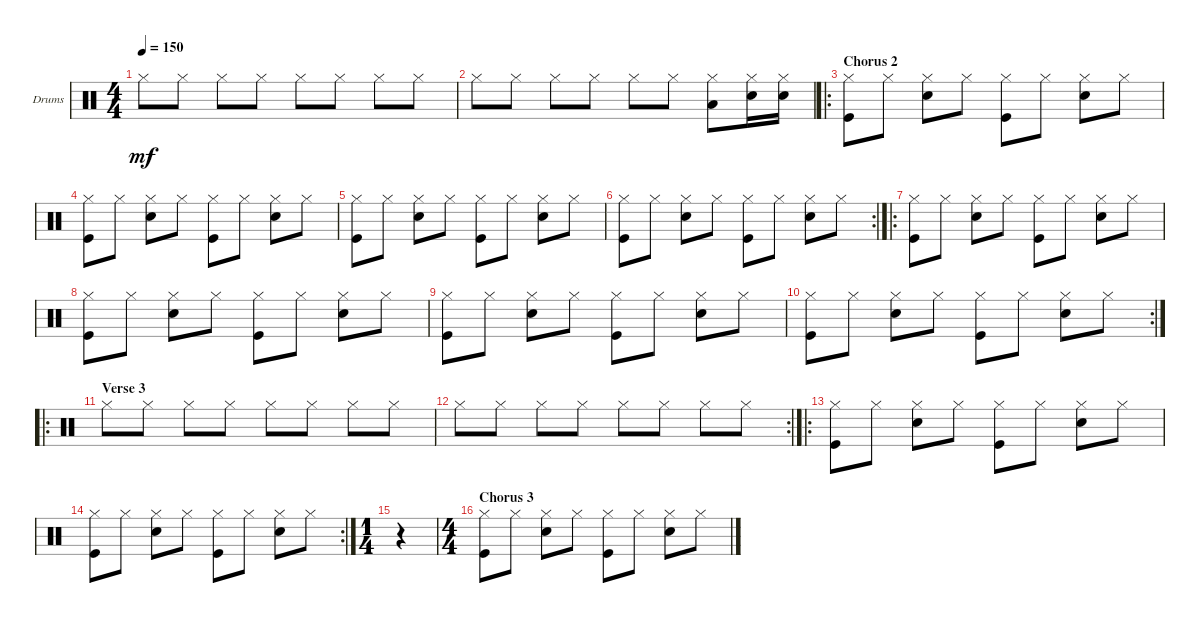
\defaultSystemsLayout 4
\bracketExtendMode groupsimilarinstruments
\firstSystemTrackNameOrientation horizontal
\otherSystemsTrackNameOrientation horizontal
\chordDiagramsInScore
\track ("Drumkit" "Drums") {instrument percussion}
\staff {score}
\articulation defaults
\ts (4 4)
\tempo 150
\clef neutral
\ks c "Hi-Hat (closed)".8{dy mf} "Hi-Hat (closed)".8 "Hi-Hat (closed)".8 "Hi-Hat (closed)".8 "Hi-Hat (closed)".8 "Hi-Hat (closed)".8 "Hi-Hat (closed)".8 "Hi-Hat (closed)".8
|
"Hi-Hat (closed)".8 "Hi-Hat (closed)".8 "Hi-Hat (closed)".8 "Hi-Hat (closed)".8 "Hi-Hat (closed)".8 "Hi-Hat (closed)".8 ("Hi-Hat (closed)" "Low Tom (hit)").8 ("Hi-Hat (closed)" "Snare (hit) 2").16 ("Hi-Hat (closed)" "Snare (hit) 2").16 |
\ro
\section ("" "Chorus 2")
("Kick (hit)" "Hi-Hat (closed)").8 "Hi-Hat (closed)".8 ("Snare (hit) 2" "Hi-Hat (closed)").8 "Hi-Hat (closed)".8 ("Kick (hit)" "Hi-Hat (closed)").8 "Hi-Hat (closed)".8 ("Snare (hit) 2" "Hi-Hat (closed)").8 "Hi-Hat (closed)".8 |
("Kick (hit)" "Hi-Hat (closed)").8 "Hi-Hat (closed)".8 ("Snare (hit) 2" "Hi-Hat (closed)").8 "Hi-Hat (closed)".8 ("Kick (hit)" "Hi-Hat (closed)").8 "Hi-Hat (closed)".8 ("Snare (hit) 2" "Hi-Hat (closed)").8 "Hi-Hat (closed)".8 |
("Kick (hit)" "Hi-Hat (closed)").8 "Hi-Hat (closed)".8 ("Snare (hit) 2" "Hi-Hat (closed)").8 "Hi-Hat (closed)".8 ("Kick (hit)" "Hi-Hat (closed)").8 "Hi-Hat (closed)".8 ("Snare (hit) 2" "Hi-Hat (closed)").8 "Hi-Hat (closed)".8 |
\rc 2
("Kick (hit)" "Hi-Hat (closed)").8 "Hi-Hat (closed)".8 ("Snare (hit) 2" "Hi-Hat (closed)").8 "Hi-Hat (closed)".8 ("Kick (hit)" "Hi-Hat (closed)").8 "Hi-Hat (closed)".8 ("Snare (hit) 2" "Hi-Hat (closed)").8 "Hi-Hat (closed)".8 |
\ro
("Kick (hit)" "Hi-Hat (closed)").8 "Hi-Hat (closed)".8 ("Snare (hit) 2" "Hi-Hat (closed)").8 "Hi-Hat (closed)".8 ("Kick (hit)" "Hi-Hat (closed)").8 "Hi-Hat (closed)".8 ("Snare (hit) 2" "Hi-Hat (closed)").8 "Hi-Hat (closed)".8 |
("Kick (hit)" "Hi-Hat (closed)").8 "Hi-Hat (closed)".8 ("Snare (hit) 2" "Hi-Hat (closed)").8 "Hi-Hat (closed)".8 ("Kick (hit)" "Hi-Hat (closed)").8 "Hi-Hat (closed)".8 ("Snare (hit) 2" "Hi-Hat (closed)").8 "Hi-Hat (closed)".8 |
("Kick (hit)" "Hi-Hat (closed)").8 "Hi-Hat (closed)".8 ("Snare (hit) 2" "Hi-Hat (closed)").8 "Hi-Hat (closed)".8 ("Kick (hit)" "Hi-Hat (closed)").8 "Hi-Hat (closed)".8 ("Snare (hit) 2" "Hi-Hat (closed)").8 "Hi-Hat (closed)".8 |
\rc 2
("Kick (hit)" "Hi-Hat (closed)").8 "Hi-Hat (closed)".8 ("Snare (hit) 2" "Hi-Hat (closed)").8 "Hi-Hat (closed)".8 ("Kick (hit)" "Hi-Hat (closed)").8 "Hi-Hat (closed)".8 ("Snare (hit) 2" "Hi-Hat (closed)").8 "Hi-Hat (closed)".8 |
\ro
\section ("" "Verse 3")
"Hi-Hat (closed)".8 "Hi-Hat (closed)".8 "Hi-Hat (closed)".8 "Hi-Hat (closed)".8 "Hi-Hat (closed)".8 "Hi-Hat (closed)".8 "Hi-Hat (closed)".8 "Hi-Hat (closed)".8 |
\rc 2 "Hi-Hat (closed)".8 "Hi-Hat (closed)".8 "Hi-Hat (closed)".8 "Hi-Hat (closed)".8 "Hi-Hat (closed)".8 "Hi-Hat (closed)".8 "Hi-Hat (closed)".8 "Hi-Hat (closed)".8
|
\ro
("Kick (hit)" "Hi-Hat (closed)").8 "Hi-Hat (closed)".8 ("Snare (hit) 2" "Hi-Hat (closed)").8 "Hi-Hat (closed)".8 ("Kick (hit)" "Hi-Hat (closed)").8 "Hi-Hat (closed)".8 ("Snare (hit) 2" "Hi-Hat (closed)").8 "Hi-Hat (closed)".8 |
\rc 2
("Kick (hit)" "Hi-Hat (closed)").8 "Hi-Hat (closed)".8 ("Snare (hit) 2" "Hi-Hat (closed)").8 "Hi-Hat (closed)".8 ("Kick (hit)" "Hi-Hat (closed)").8 "Hi-Hat (closed)".8 ("Snare (hit) 2" "Hi-Hat (closed)").8 "Hi-Hat (closed)".8 |
\ts (1 4)
r.4 |
\ts (4 4)
\section ("" "Chorus 3")
("Kick (hit)" "Hi-Hat (closed)").8 "Hi-Hat (closed)".8 ("Snare (hit) 2" "Hi-Hat (closed)").8 "Hi-Hat (closed)".8 ("Kick (hit)" "Hi-Hat (closed)").8 "Hi-Hat (closed)".8 ("Snare (hit) 2" "Hi-Hat (closed)").8 "Hi-Hat (closed)".8
